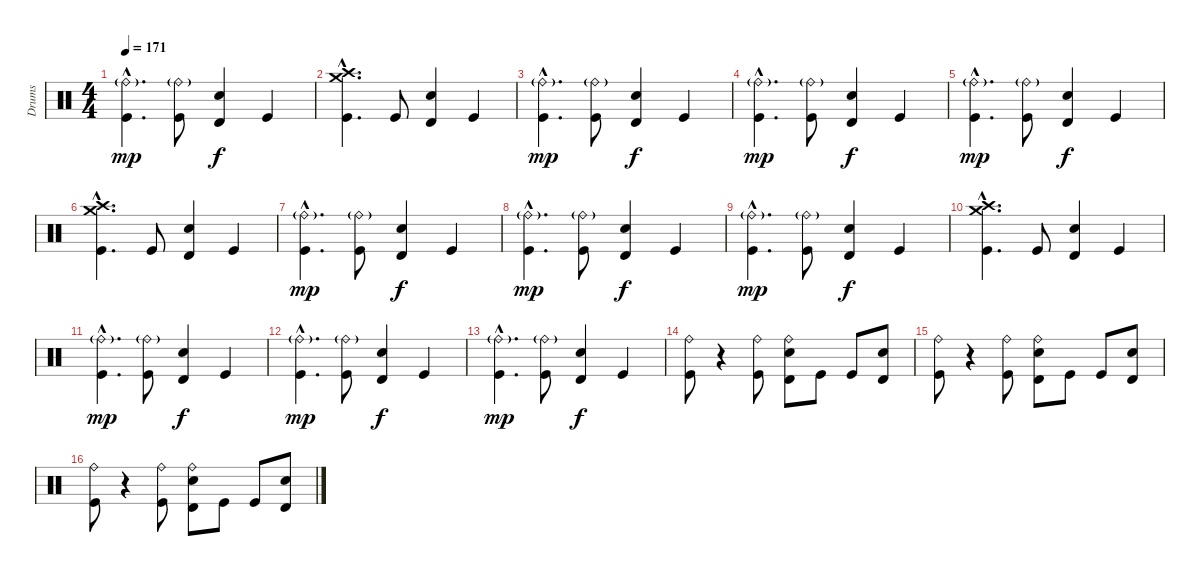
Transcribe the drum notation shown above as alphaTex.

\track ("Drums" "Drums") {instrument percussion}
\staff {score}
\articulation defaults
\ts (4 4)
\tempo 171
\clef neutral
\ks c
("Ride (bell)"{g hac} "Kick (hit)"{hac}).4{d dy mp} ("Ride (bell)"{g} "Kick (hit)").8 ("Timbale high (hit)" "Electric Snare (hit)").4{dy f} "Kick (hit)".4 |
("Crash medium (hit)"{hac} "Crash high (hit)"{hac} "Kick (hit)"{hac}).4{d} "Kick (hit)".8 ("Timbale high (hit)" "Electric Snare (hit)").4 "Kick (hit)".4 |
("Ride (bell)"{g hac} "Kick (hit)"{hac}).4{d dy mp} ("Ride (bell)"{g} "Kick (hit)").8 ("Timbale high (hit)" "Electric Snare (hit)").4{dy f} "Kick (hit)".4 |
("Ride (bell)"{g hac} "Kick (hit)"{hac}).4{d dy mp} ("Ride (bell)"{g} "Kick (hit)").8 ("Timbale high (hit)" "Electric Snare (hit)").4{dy f} "Kick (hit)".4 |
("Ride (bell)"{g hac} "Kick (hit)"{hac}).4{d dy mp} ("Ride (bell)"{g} "Kick (hit)").8 ("Timbale high (hit)" "Electric Snare (hit)").4{dy f} "Kick (hit)".4 |
("Crash medium (hit)"{hac} "Crash high (hit)"{hac} "Kick (hit)"{hac}).4{d} "Kick (hit)".8 ("Timbale high (hit)" "Electric Snare (hit)").4 "Kick (hit)".4 |
("Ride (bell)"{g hac} "Kick (hit)"{hac}).4{d dy mp} ("Ride (bell)"{g} "Kick (hit)").8 ("Timbale high (hit)" "Electric Snare (hit)").4{dy f} "Kick (hit)".4 |
("Ride (bell)"{g hac} "Kick (hit)"{hac}).4{d dy mp} ("Ride (bell)"{g} "Kick (hit)").8 ("Timbale high (hit)" "Electric Snare (hit)").4{dy f} "Kick (hit)".4 |
("Ride (bell)"{g hac} "Kick (hit)"{hac}).4{d dy mp} ("Ride (bell)"{g} "Kick (hit)").8 ("Timbale high (hit)" "Electric Snare (hit)").4{dy f} "Kick (hit)".4 |
("Crash medium (hit)"{hac} "Crash high (hit)"{hac} "Kick (hit)"{hac}).4{d} "Kick (hit)".8 ("Timbale high (hit)" "Electric Snare (hit)").4 "Kick (hit)".4 |
("Ride (bell)"{g hac} "Kick (hit)"{hac}).4{d dy mp} ("Ride (bell)"{g} "Kick (hit)").8 ("Timbale high (hit)" "Electric Snare (hit)").4{dy f} "Kick (hit)".4 |
("Ride (bell)"{g hac} "Kick (hit)"{hac}).4{d dy mp} ("Ride (bell)"{g} "Kick (hit)").8 ("Timbale high (hit)" "Electric Snare (hit)").4{dy f} "Kick (hit)".4 |
("Ride (bell)"{g hac} "Kick (hit)"{hac}).4{d dy mp} ("Ride (bell)"{g} "Kick (hit)").8 ("Timbale high (hit)" "Electric Snare (hit)").4{dy f} "Kick (hit)".4 |
("Ride (bell)" "Kick (hit)").8 r.4 ("Ride (bell)" "Kick (hit)").8 ("Ride (bell)" "Timbale high (hit)" "Electric Snare (hit)").8 "Kick (hit)".8 "Kick (hit)".8 ("Timbale high (hit)" "Electric Snare (hit)").8 |
("Ride (bell)" "Kick (hit)").8 r.4 ("Ride (bell)" "Kick (hit)").8 ("Ride (bell)" "Timbale high (hit)" "Electric Snare (hit)").8 "Kick (hit)".8 "Kick (hit)".8 ("Timbale high (hit)" "Electric Snare (hit)").8 |
("Ride (bell)" "Kick (hit)").8 r.4 ("Ride (bell)" "Kick (hit)").8 ("Ride (bell)" "Timbale high (hit)" "Electric Snare (hit)").8 "Kick (hit)".8 "Kick (hit)".8 ("Timbale high (hit)" "Electric Snare (hit)").8
